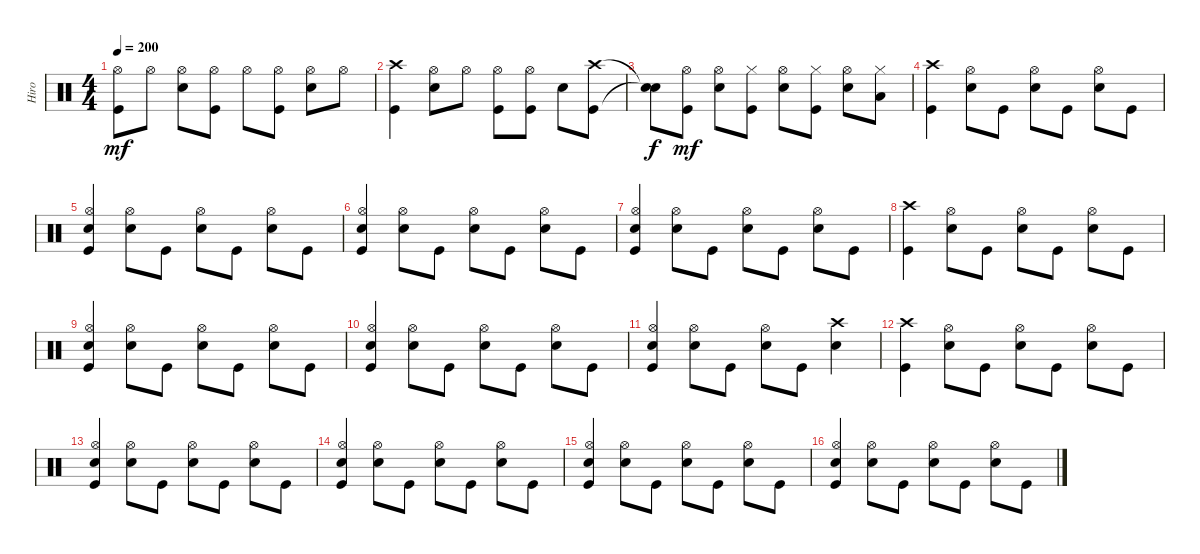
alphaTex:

\track ("Hiro" "Hiro") {instrument percussion}
\staff {score}
\articulation defaults
\ts (4 4)
\tempo 200
\clef neutral
\ks c
("Kick (hit)" "Hi-Hat (open)").8{dy mf} "Hi-Hat (open)".8 ("Electric Snare (hit)" "Hi-Hat (open)").8 ("Kick (hit)" "Hi-Hat (open)").8 "Hi-Hat (open)".8 ("Kick (hit)" "Hi-Hat (open)").8 ("Electric Snare (hit)" "Hi-Hat (open)").8 "Hi-Hat (open)".8 |
("Kick (hit)" "Crash high (hit)").4 ("Electric Snare (hit)" "Hi-Hat (open)").8 "Hi-Hat (open)".8 ("Kick (hit)" "Hi-Hat (open)").8 ("Kick (hit)" "Hi-Hat (open)").8 "Electric Snare (hit)".8 ("Crash high (hit)" "Kick (hit)").8 |
("Snare (hit)"{t} "Snare (hit)"{t}).8{dy f} ("Kick (hit)" "Hi-Hat (open)").8{dy mf} ("Electric Snare (hit)" "Hi-Hat (open)").8 ("Kick (hit)" "Hi-Hat (closed)").8 ("Electric Snare (hit)" "Hi-Hat (open)").8 ("Kick (hit)" "Hi-Hat (closed)").8 ("Electric Snare (hit)" "Hi-Hat (open)").8 ("Low Floor Tom (hit)" "Hi-Hat (closed)").8 |
("Crash high (hit)" "Kick (hit)").4 ("Electric Snare (hit)" "Hi-Hat (open)").8 "Kick (hit)".8 ("Electric Snare (hit)" "Hi-Hat (open)").8 "Kick (hit)".8 ("Electric Snare (hit)" "Hi-Hat (open)").8 "Kick (hit)".8 |
("Electric Snare (hit)" "Kick (hit)" "Hi-Hat (open)").4 ("Electric Snare (hit)" "Hi-Hat (open)").8 "Kick (hit)".8 ("Electric Snare (hit)" "Hi-Hat (open)").8 "Kick (hit)".8 ("Electric Snare (hit)" "Hi-Hat (open)").8 "Kick (hit)".8 |
("Kick (hit)" "Electric Snare (hit)" "Hi-Hat (open)").4 ("Electric Snare (hit)" "Hi-Hat (open)").8 "Kick (hit)".8 ("Electric Snare (hit)" "Hi-Hat (open)").8 "Kick (hit)".8 ("Electric Snare (hit)" "Hi-Hat (open)").8 "Kick (hit)".8 |
("Kick (hit)" "Electric Snare (hit)" "Hi-Hat (open)").4 ("Electric Snare (hit)" "Hi-Hat (open)").8 "Kick (hit)".8 ("Electric Snare (hit)" "Hi-Hat (open)").8 "Kick (hit)".8 ("Electric Snare (hit)" "Hi-Hat (open)").8 "Kick (hit)".8 |
("Kick (hit)" "Crash high (hit)").4 ("Electric Snare (hit)" "Hi-Hat (open)").8 "Kick (hit)".8 ("Electric Snare (hit)" "Hi-Hat (open)").8 "Kick (hit)".8 ("Electric Snare (hit)" "Hi-Hat (open)").8 "Kick (hit)".8 |
("Kick (hit)" "Electric Snare (hit)" "Hi-Hat (open)").4 ("Electric Snare (hit)" "Hi-Hat (open)").8 "Kick (hit)".8 ("Electric Snare (hit)" "Hi-Hat (open)").8 "Kick (hit)".8 ("Electric Snare (hit)" "Hi-Hat (open)").8 "Kick (hit)".8 |
("Electric Snare (hit)" "Kick (hit)" "Hi-Hat (open)").4 ("Electric Snare (hit)" "Hi-Hat (open)").8 "Kick (hit)".8 ("Electric Snare (hit)" "Hi-Hat (open)").8 "Kick (hit)".8 ("Electric Snare (hit)" "Hi-Hat (open)").8 "Kick (hit)".8 |
("Electric Snare (hit)" "Kick (hit)" "Hi-Hat (open)").4 ("Electric Snare (hit)" "Hi-Hat (open)").8 "Kick (hit)".8 ("Electric Snare (hit)" "Hi-Hat (open)").8 "Kick (hit)".8 ("Electric Snare (hit)" "Crash high (hit)").4 |
("Kick (hit)" "Crash high (hit)").4 ("Electric Snare (hit)" "Hi-Hat (open)").8 "Kick (hit)".8 ("Electric Snare (hit)" "Hi-Hat (open)").8 "Kick (hit)".8 ("Electric Snare (hit)" "Hi-Hat (open)").8 "Kick (hit)".8 |
("Kick (hit)" "Electric Snare (hit)" "Hi-Hat (open)").4 ("Electric Snare (hit)" "Hi-Hat (open)").8 "Kick (hit)".8 ("Electric Snare (hit)" "Hi-Hat (open)").8 "Kick (hit)".8 ("Electric Snare (hit)" "Hi-Hat (open)").8 "Kick (hit)".8 |
("Electric Snare (hit)" "Kick (hit)" "Hi-Hat (open)").4 ("Electric Snare (hit)" "Hi-Hat (open)").8 "Kick (hit)".8 ("Electric Snare (hit)" "Hi-Hat (open)").8 "Kick (hit)".8 ("Electric Snare (hit)" "Hi-Hat (open)").8 "Kick (hit)".8 |
("Electric Snare (hit)" "Kick (hit)" "Hi-Hat (open)").4 ("Electric Snare (hit)" "Hi-Hat (open)").8 "Kick (hit)".8 ("Electric Snare (hit)" "Hi-Hat (open)").8 "Kick (hit)".8 ("Electric Snare (hit)" "Hi-Hat (open)").8 "Kick (hit)".8 |
("Kick (hit)" "Electric Snare (hit)" "Hi-Hat (open)").4 ("Electric Snare (hit)" "Hi-Hat (open)").8 "Kick (hit)".8 ("Electric Snare (hit)" "Hi-Hat (open)").8 "Kick (hit)".8 ("Electric Snare (hit)" "Hi-Hat (open)").8 "Kick (hit)".8
